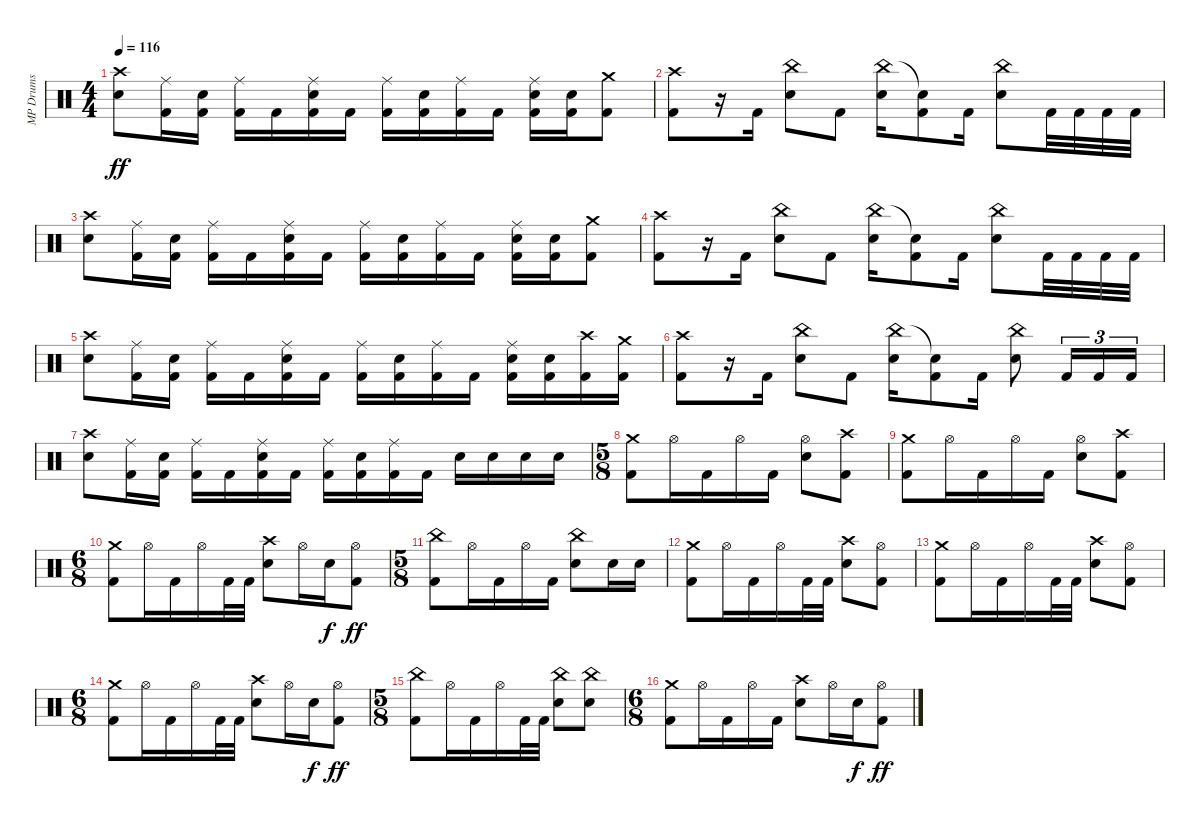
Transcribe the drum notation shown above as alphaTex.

\track ("MP Drums" "MP Drums") {instrument percussion}
\staff {score}
\articulation defaults
\ts (4 4)
\tempo 116
\clef neutral
\ks c
("Crash high (hit)" "Snare (hit) 2").8{dy ff} ("Ride (middle)" "Kick (hit) 2").16 ("Snare (hit) 2" "Kick (hit) 2").16 ("Ride (middle)" "Kick (hit) 2").16 "Kick (hit) 2".16 ("Ride (middle)" "Snare (hit) 2" "Kick (hit) 2").16 "Kick (hit) 2".16 ("Ride (middle)" "Kick (hit) 2").16 ("Snare (hit) 2" "Kick (hit) 2").16 ("Ride (middle)" "Kick (hit) 2").16 "Kick (hit) 2".16 ("Ride (middle)" "Snare (hit) 2" "Kick (hit) 2").16 ("Snare (hit) 2" "Kick (hit) 2").16 ("Crash medium (hit)" "Kick (hit) 2").8 |
("Crash high (hit)" "Kick (hit) 2").8 r.16 "Kick (hit) 2".16 ("China (hit)" "Snare (hit) 2").8 "Kick (hit) 2".8 ("China (hit)" "Snare (hit) 2").16 ("Snare (hit)"{t} "Kick (hit) 2").8 "Kick (hit) 2".16 ("China (hit)" "Snare (hit) 2").8 "Kick (hit) 2".32 "Kick (hit) 2".32 "Kick (hit) 2".32 "Kick (hit) 2".32 |
("Crash high (hit)" "Snare (hit) 2").8 ("Ride (middle)" "Kick (hit) 2").16 ("Snare (hit) 2" "Kick (hit) 2").16 ("Ride (middle)" "Kick (hit) 2").16 "Kick (hit) 2".16 ("Ride (middle)" "Snare (hit) 2" "Kick (hit) 2").16 "Kick (hit) 2".16 ("Ride (middle)" "Kick (hit) 2").16 ("Snare (hit) 2" "Kick (hit) 2").16 ("Ride (middle)" "Kick (hit) 2").16 "Kick (hit) 2".16 ("Ride (middle)" "Snare (hit) 2" "Kick (hit) 2").16 ("Snare (hit) 2" "Kick (hit) 2").16 ("Crash medium (hit)" "Kick (hit) 2").8 |
("Crash high (hit)" "Kick (hit) 2").8 r.16 "Kick (hit) 2".16 ("China (hit)" "Snare (hit) 2").8 "Kick (hit) 2".8 ("China (hit)" "Snare (hit) 2").16 ("Snare (hit)"{t} "Kick (hit) 2").8 "Kick (hit) 2".16 ("China (hit)" "Snare (hit) 2").8 "Kick (hit) 2".32 "Kick (hit) 2".32 "Kick (hit) 2".32 "Kick (hit) 2".32 |
("Crash high (hit)" "Snare (hit) 2").8 ("Ride (middle)" "Kick (hit) 2").16 ("Snare (hit) 2" "Kick (hit) 2").16 ("Ride (middle)" "Kick (hit) 2").16 "Kick (hit) 2".16 ("Ride (middle)" "Snare (hit) 2" "Kick (hit) 2").16 "Kick (hit) 2".16 ("Ride (middle)" "Kick (hit) 2").16 ("Snare (hit) 2" "Kick (hit) 2").16 ("Ride (middle)" "Kick (hit) 2").16 "Kick (hit) 2".16 ("Ride (middle)" "Snare (hit) 2" "Kick (hit) 2").16 ("Snare (hit) 2" "Kick (hit) 2").16 ("Crash high (hit)" "Kick (hit) 2").16 ("Crash medium (hit)" "Kick (hit) 2").16 |
("Crash high (hit)" "Kick (hit) 2").8 r.16 "Kick (hit) 2".16 ("China (hit)" "Snare (hit) 2").8 "Kick (hit) 2".8 ("China (hit)" "Snare (hit) 2").16 ("Snare (hit)"{t} "Kick (hit) 2").8 "Kick (hit) 2".16 ("China (hit)" "Snare (hit) 2").8 "Kick (hit) 2".16{tu (3 2)} "Kick (hit) 2".16{tu (3 2)} "Kick (hit) 2".16{tu (3 2)} |
("Crash high (hit)" "Snare (hit) 2").8 ("Ride (middle)" "Kick (hit) 2").16 ("Snare (hit) 2" "Kick (hit) 2").16 ("Ride (middle)" "Kick (hit) 2").16 "Kick (hit) 2".16 ("Ride (middle)" "Snare (hit) 2" "Kick (hit) 2").16 "Kick (hit) 2".16 ("Ride (middle)" "Kick (hit) 2").16 ("Snare (hit) 2" "Kick (hit) 2").16 ("Ride (middle)" "Kick (hit) 2").16 "Kick (hit) 2".16 "Snare (hit) 2".16 "Snare (hit) 2".16 "Snare (hit) 2".16 "Snare (hit) 2".16 |
\ts (5 8)
("Crash medium (hit)" "Kick (hit) 2").8 "Hi-Hat (open)".16 "Kick (hit) 2".16 "Hi-Hat (open)".16 "Kick (hit) 2".16 ("Hi-Hat (open)" "Snare (hit) 2").8 ("Crash high (hit)" "Kick (hit) 2").8 |
("Crash medium (hit)" "Kick (hit) 2").8 "Hi-Hat (open)".16 "Kick (hit) 2".16 "Hi-Hat (open)".16 "Kick (hit) 2".16 ("Hi-Hat (open)" "Snare (hit) 2").8 ("Crash high (hit)" "Kick (hit) 2").8 |
\ts (6 8)
("Crash medium (hit)" "Kick (hit) 2").8 "Hi-Hat (open)".16 "Kick (hit) 2".16 "Hi-Hat (open)".16 "Kick (hit) 2".32 "Kick (hit) 2".32 ("Crash high (hit)" "Snare (hit) 2").8 "Hi-Hat (open)".16 "Snare (hit) 2".16{dy f} ("Hi-Hat (open)" "Kick (hit) 2").8{dy ff} |
\ts (5 8)
("China (hit)" "Kick (hit) 2").8 "Hi-Hat (open)".16 "Kick (hit) 2".16 "Hi-Hat (open)".16 "Kick (hit) 2".16 ("China (hit)" "Snare (hit) 2").8 "Snare (hit) 2".16 "Snare (hit) 2".16 |
("Crash medium (hit)" "Kick (hit) 2").8 "Hi-Hat (open)".16 "Kick (hit) 2".16 "Hi-Hat (open)".16 "Kick (hit) 2".32 "Kick (hit) 2".32 ("Crash high (hit)" "Snare (hit) 2").8 ("Hi-Hat (open)" "Kick (hit) 2").8 |
("Crash medium (hit)" "Kick (hit) 2").8 "Hi-Hat (open)".16 "Kick (hit) 2".16 "Hi-Hat (open)".16 "Kick (hit) 2".32 "Kick (hit) 2".32 ("Crash high (hit)" "Snare (hit) 2").8 ("Hi-Hat (open)" "Kick (hit) 2").8 |
\ts (6 8)
("Crash medium (hit)" "Kick (hit) 2").8 "Hi-Hat (open)".16 "Kick (hit) 2".16 "Hi-Hat (open)".16 "Kick (hit) 2".32 "Kick (hit) 2".32 ("Crash high (hit)" "Snare (hit) 2").8 "Hi-Hat (open)".16 "Snare (hit) 2".16{dy f} ("Hi-Hat (open)" "Kick (hit) 2").8{dy ff} |
\ts (5 8)
("China (hit)" "Kick (hit) 2").8 "Hi-Hat (open)".16 "Kick (hit) 2".16 "Hi-Hat (open)".16 "Kick (hit) 2".32 "Kick (hit) 2".32 ("China (hit)" "Snare (hit) 2").8 ("China (hit)" "Snare (hit) 2").8 |
\ts (6 8)
("Crash medium (hit)" "Kick (hit) 2").8 "Hi-Hat (open)".16 "Kick (hit) 2".16 "Hi-Hat (open)".16 "Kick (hit) 2".16 ("Crash high (hit)" "Snare (hit) 2").8 "Hi-Hat (open)".16 "Snare (hit) 2".16{dy f} ("Hi-Hat (open)" "Kick (hit) 2").8{dy ff}
